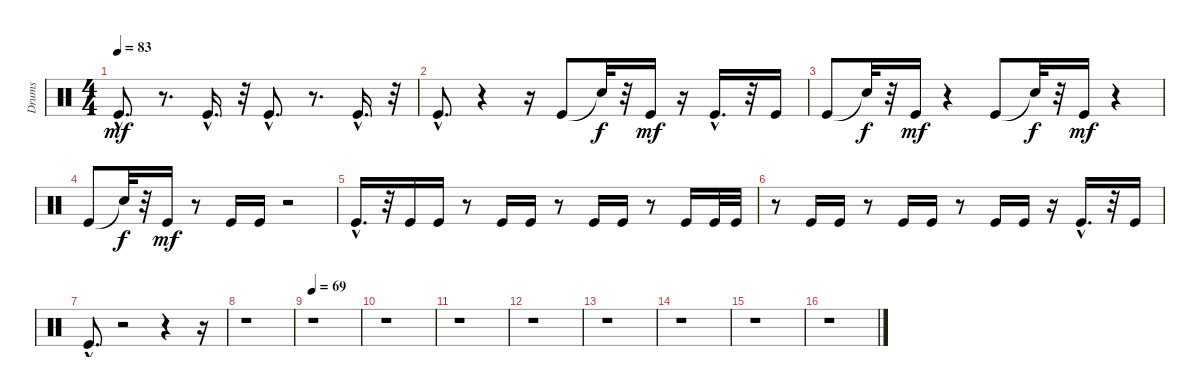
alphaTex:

\track ("Drums" "Drums") {instrument percussion}
\staff {score}
\articulation defaults
\ts (4 4)
\tempo 83
\clef neutral
\ks c "Kick (hit)"{hac}.8{d dy mf}
r.8{d} "Kick (hit)"{hac}.16{d} r.32 "Kick (hit)"{hac}.8{d} r.8{d} "Kick (hit)"{hac}.16{d} r.32 |
"Kick (hit)"{hac}.8{d} r.4 r.16 "Kick (hit)".8 "Snare (hit)"{t}.32{dy f} r.32 "Kick (hit)".16{dy mf} r.16 "Kick (hit)"{hac}.16{d} r.32 "Kick (hit)".16 |
"Kick (hit)".8 "Snare (hit)"{t}.32{dy f} r.32 "Kick (hit)".16{dy mf} r.4 "Kick (hit)".8 "Snare (hit)"{t}.32{dy f} r.32 "Kick (hit)".16{dy mf} r.4 |
"Kick (hit)".8 "Snare (hit)"{t}.32{dy f} r.32 "Kick (hit)".16{dy mf} r.8 "Kick (hit)".16 "Kick (hit)".16 r.2 |
"Kick (hit)"{hac}.16{d} r.32 "Kick (hit)".16 "Kick (hit)".16 r.8 "Kick (hit)".16 "Kick (hit)".16 r.8 "Kick (hit)".16 "Kick (hit)".16 r.8 "Kick (hit)".16 "Kick (hit)".32 "Kick (hit)".32 |
r.8 "Kick (hit)".16 "Kick (hit)".16 r.8 "Kick (hit)".16 "Kick (hit)".16 r.8 "Kick (hit)".16 "Kick (hit)".16 r.16 "Kick (hit)"{hac}.16{d} r.32 "Kick (hit)".16 |
"Kick (hit)"{hac}.8{d} r.2 r.4 r.16 |
r.1 |
\tempo 69
r.1 |
r.1 |
r.1 |
r.1 |
r.1 |
r.1 |
r.1 |
r.1
